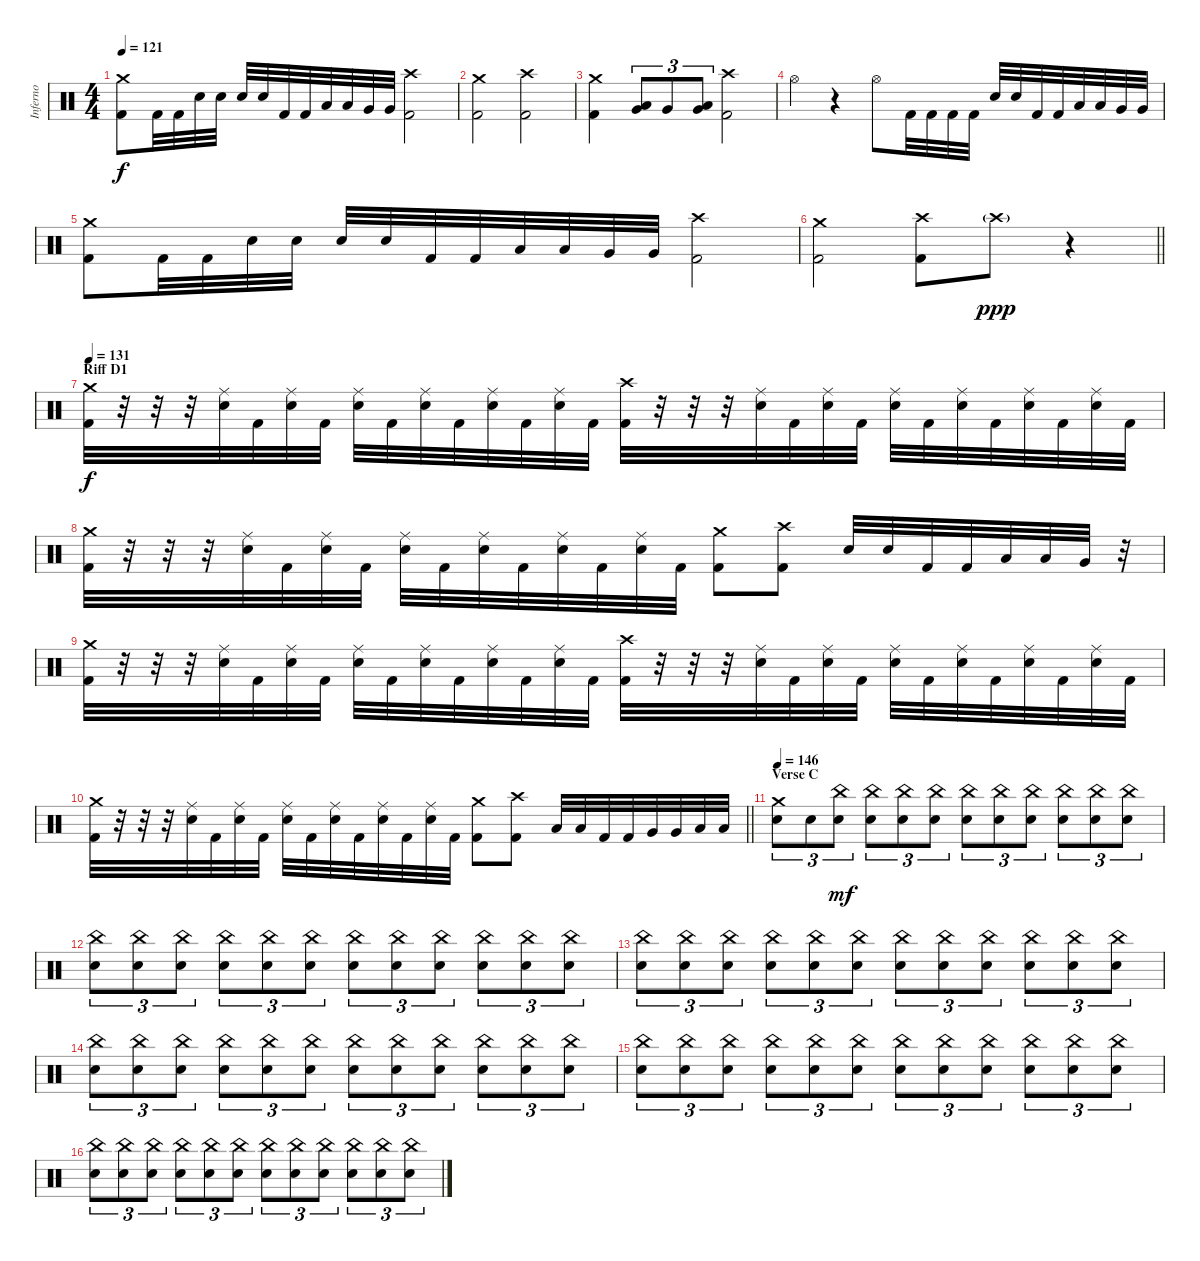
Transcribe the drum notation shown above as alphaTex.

\track ("Inferno" "Inferno") {instrument percussion}
\staff {score}
\articulation defaults
\ts (4 4)
\tempo 121
\clef neutral
\ks c
("Crash medium (hit)" "Kick (hit) 2").8{dy f} "Kick (hit) 2".32 "Kick (hit) 2".32 "Snare (hit) 2".32 "Snare (hit) 2".32 "Snare (hit) 2".32 "Snare (hit) 2".32 "Kick (hit) 2".32 "Kick (hit) 2".32 "Low Tom (hit)".32 "Low Tom (hit)".32 "Very Low Tom (hit)".32 "Very Low Tom (hit)".32 ("Crash high (hit)" "Kick (hit) 2").2 |
("Crash medium (hit)" "Kick (hit) 2").2 ("Crash high (hit)" "Kick (hit) 2").2 |
("Crash medium (hit)" "Kick (hit) 2").4 ("Low Tom (hit)" "Very Low Tom (hit)").8{tu (3 2)} "Very Low Tom (hit)".8{tu (3 2)} ("Very Low Tom (hit)" "Low Floor Tom (hit)").8{tu (3 2)} ("Crash high (hit)" "Kick (hit) 2").2 |
"Hi-Hat (open)".4 r.4 "Hi-Hat (open)".8 "Kick (hit) 2".32 "Kick (hit) 2".32 "Kick (hit) 2".32 "Kick (hit) 2".32 "Snare (hit) 2".32 "Snare (hit) 2".32 "Kick (hit) 2".32 "Kick (hit) 2".32 "Low Tom (hit)".32 "Low Tom (hit)".32 "Very Low Tom (hit)".32 "Very Low Tom (hit)".32 |
("Crash medium (hit)" "Kick (hit) 2").8 "Kick (hit) 2".32 "Kick (hit) 2".32 "Snare (hit) 2".32 "Snare (hit) 2".32 "Snare (hit) 2".32 "Snare (hit) 2".32 "Kick (hit) 2".32 "Kick (hit) 2".32 "Low Tom (hit)".32 "Low Tom (hit)".32 "Very Low Tom (hit)".32 "Very Low Tom (hit)".32 ("Crash high (hit)" "Kick (hit) 2").2 |
\barLineRight lightlight
("Crash medium (hit)" "Kick (hit) 2").2 ("Crash high (hit)" "Kick (hit) 2").8 "Crash high (hit)"{g}.8{dy ppp} r.4 |
\section ("" "Riff D1")
\tempo 131
("Crash medium (hit)" "Kick (hit) 2").32{dy f} r.32 r.32 r.32 ("Ride (middle)" "Snare (hit) 2").32 "Kick (hit) 2".32 ("Ride (middle)" "Snare (hit) 2").32 "Kick (hit) 2".32 ("Ride (middle)" "Snare (hit) 2").32 "Kick (hit) 2".32 ("Ride (middle)" "Snare (hit) 2").32 "Kick (hit) 2".32 ("Ride (middle)" "Snare (hit) 2").32 "Kick (hit) 2".32 ("Ride (middle)" "Snare (hit) 2").32 "Kick (hit) 2".32 ("Crash high (hit)" "Kick (hit) 2").32 r.32 r.32 r.32 ("Ride (middle)" "Snare (hit) 2").32 "Kick (hit) 2".32 ("Ride (middle)" "Snare (hit) 2").32 "Kick (hit) 2".32 ("Ride (middle)" "Snare (hit) 2").32 "Kick (hit) 2".32 ("Ride (middle)" "Snare (hit) 2").32 "Kick (hit) 2".32 ("Ride (middle)" "Snare (hit) 2").32 "Kick (hit) 2".32 ("Ride (middle)" "Snare (hit) 2").32 "Kick (hit) 2".32 |
("Crash medium (hit)" "Kick (hit) 2").32 r.32 r.32 r.32 ("Ride (middle)" "Snare (hit) 2").32 "Kick (hit) 2".32 ("Ride (middle)" "Snare (hit) 2").32 "Kick (hit) 2".32 ("Ride (middle)" "Snare (hit) 2").32 "Kick (hit) 2".32 ("Ride (middle)" "Snare (hit) 2").32 "Kick (hit) 2".32 ("Ride (middle)" "Snare (hit) 2").32 "Kick (hit) 2".32 ("Ride (middle)" "Snare (hit) 2").32 "Kick (hit) 2".32 ("Crash medium (hit)" "Kick (hit) 2").8 ("Crash high (hit)" "Kick (hit) 2").8 "Snare (hit) 2".32 "Snare (hit) 2".32 "Kick (hit) 2".32 "Kick (hit) 2".32 "Low Tom (hit)".32 "Low Tom (hit)".32 "Very Low Tom (hit)".32 r.32 |
("Crash medium (hit)" "Kick (hit) 2").32 r.32 r.32 r.32 ("Ride (middle)" "Snare (hit) 2").32 "Kick (hit) 2".32 ("Ride (middle)" "Snare (hit) 2").32 "Kick (hit) 2".32 ("Ride (middle)" "Snare (hit) 2").32 "Kick (hit) 2".32 ("Ride (middle)" "Snare (hit) 2").32 "Kick (hit) 2".32 ("Ride (middle)" "Snare (hit) 2").32 "Kick (hit) 2".32 ("Ride (middle)" "Snare (hit) 2").32 "Kick (hit) 2".32 ("Crash high (hit)" "Kick (hit) 2").32 r.32 r.32 r.32 ("Ride (middle)" "Snare (hit) 2").32 "Kick (hit) 2".32 ("Ride (middle)" "Snare (hit) 2").32 "Kick (hit) 2".32 ("Ride (middle)" "Snare (hit) 2").32 "Kick (hit) 2".32 ("Ride (middle)" "Snare (hit) 2").32 "Kick (hit) 2".32 ("Ride (middle)" "Snare (hit) 2").32 "Kick (hit) 2".32 ("Ride (middle)" "Snare (hit) 2").32 "Kick (hit) 2".32 |
\barLineRight lightlight
("Crash medium (hit)" "Kick (hit) 2").32 r.32 r.32 r.32 ("Ride (middle)" "Snare (hit) 2").32 "Kick (hit) 2".32 ("Ride (middle)" "Snare (hit) 2").32 "Kick (hit) 2".32 ("Ride (middle)" "Snare (hit) 2").32 "Kick (hit) 2".32 ("Ride (middle)" "Snare (hit) 2").32 "Kick (hit) 2".32 ("Ride (middle)" "Snare (hit) 2").32 "Kick (hit) 2".32 ("Ride (middle)" "Snare (hit) 2").32 "Kick (hit) 2".32 ("Crash medium (hit)" "Kick (hit) 2").8 ("Crash high (hit)" "Kick (hit) 2").8 "Low Tom (hit)".32 "Low Tom (hit)".32 "Kick (hit) 2".32 "Kick (hit) 2".32 "Very Low Tom (hit)".32 "Very Low Tom (hit)".32 "Low Floor Tom (hit)".32 "Low Floor Tom (hit)".32 |
\section ("" "Verse C")
\tempo 146
("Crash medium (hit)" "Snare (hit) 2").8{tu (3 2)} "Snare (hit) 2".8{tu (3 2)} ("China (hit)" "Snare (hit) 2").8{tu (3 2) dy mf} ("China (hit)" "Snare (hit) 2").8{tu (3 2)} ("China (hit)" "Snare (hit) 2").8{tu (3 2)} ("China (hit)" "Snare (hit) 2").8{tu (3 2)} ("China (hit)" "Snare (hit) 2").8{tu (3 2)} ("China (hit)" "Snare (hit) 2").8{tu (3 2)} ("China (hit)" "Snare (hit) 2").8{tu (3 2)} ("China (hit)" "Snare (hit) 2").8{tu (3 2)} ("China (hit)" "Snare (hit) 2").8{tu (3 2)} ("China (hit)" "Snare (hit) 2").8{tu (3 2)} |
("China (hit)" "Snare (hit) 2").8{tu (3 2)} ("China (hit)" "Snare (hit) 2").8{tu (3 2)} ("China (hit)" "Snare (hit) 2").8{tu (3 2)} ("China (hit)" "Snare (hit) 2").8{tu (3 2)} ("China (hit)" "Snare (hit) 2").8{tu (3 2)} ("China (hit)" "Snare (hit) 2").8{tu (3 2)} ("China (hit)" "Snare (hit) 2").8{tu (3 2)} ("China (hit)" "Snare (hit) 2").8{tu (3 2)} ("China (hit)" "Snare (hit) 2").8{tu (3 2)} ("China (hit)" "Snare (hit) 2").8{tu (3 2)} ("China (hit)" "Snare (hit) 2").8{tu (3 2)} ("China (hit)" "Snare (hit) 2").8{tu (3 2)} |
("China (hit)" "Snare (hit) 2").8{tu (3 2)} ("China (hit)" "Snare (hit) 2").8{tu (3 2)} ("China (hit)" "Snare (hit) 2").8{tu (3 2)} ("China (hit)" "Snare (hit) 2").8{tu (3 2)} ("China (hit)" "Snare (hit) 2").8{tu (3 2)} ("China (hit)" "Snare (hit) 2").8{tu (3 2)} ("China (hit)" "Snare (hit) 2").8{tu (3 2)} ("China (hit)" "Snare (hit) 2").8{tu (3 2)} ("China (hit)" "Snare (hit) 2").8{tu (3 2)} ("China (hit)" "Snare (hit) 2").8{tu (3 2)} ("China (hit)" "Snare (hit) 2").8{tu (3 2)} ("China (hit)" "Snare (hit) 2").8{tu (3 2)} |
("China (hit)" "Snare (hit) 2").8{tu (3 2)} ("China (hit)" "Snare (hit) 2").8{tu (3 2)} ("China (hit)" "Snare (hit) 2").8{tu (3 2)} ("China (hit)" "Snare (hit) 2").8{tu (3 2)} ("China (hit)" "Snare (hit) 2").8{tu (3 2)} ("China (hit)" "Snare (hit) 2").8{tu (3 2)} ("China (hit)" "Snare (hit) 2").8{tu (3 2)} ("China (hit)" "Snare (hit) 2").8{tu (3 2)} ("China (hit)" "Snare (hit) 2").8{tu (3 2)} ("China (hit)" "Snare (hit) 2").8{tu (3 2)} ("China (hit)" "Snare (hit) 2").8{tu (3 2)} ("China (hit)" "Snare (hit) 2").8{tu (3 2)} |
("China (hit)" "Snare (hit) 2").8{tu (3 2)} ("China (hit)" "Snare (hit) 2").8{tu (3 2)} ("China (hit)" "Snare (hit) 2").8{tu (3 2)} ("China (hit)" "Snare (hit) 2").8{tu (3 2)} ("China (hit)" "Snare (hit) 2").8{tu (3 2)} ("China (hit)" "Snare (hit) 2").8{tu (3 2)} ("China (hit)" "Snare (hit) 2").8{tu (3 2)} ("China (hit)" "Snare (hit) 2").8{tu (3 2)} ("China (hit)" "Snare (hit) 2").8{tu (3 2)} ("China (hit)" "Snare (hit) 2").8{tu (3 2)} ("China (hit)" "Snare (hit) 2").8{tu (3 2)} ("China (hit)" "Snare (hit) 2").8{tu (3 2)} |
("China (hit)" "Snare (hit) 2").8{tu (3 2)} ("China (hit)" "Snare (hit) 2").8{tu (3 2)} ("China (hit)" "Snare (hit) 2").8{tu (3 2)} ("China (hit)" "Snare (hit) 2").8{tu (3 2)} ("China (hit)" "Snare (hit) 2").8{tu (3 2)} ("China (hit)" "Snare (hit) 2").8{tu (3 2)} ("China (hit)" "Snare (hit) 2").8{tu (3 2)} ("China (hit)" "Snare (hit) 2").8{tu (3 2)} ("China (hit)" "Snare (hit) 2").8{tu (3 2)} ("China (hit)" "Snare (hit) 2").8{tu (3 2)} ("China (hit)" "Snare (hit) 2").8{tu (3 2)} ("China (hit)" "Snare (hit) 2").8{tu (3 2)}
